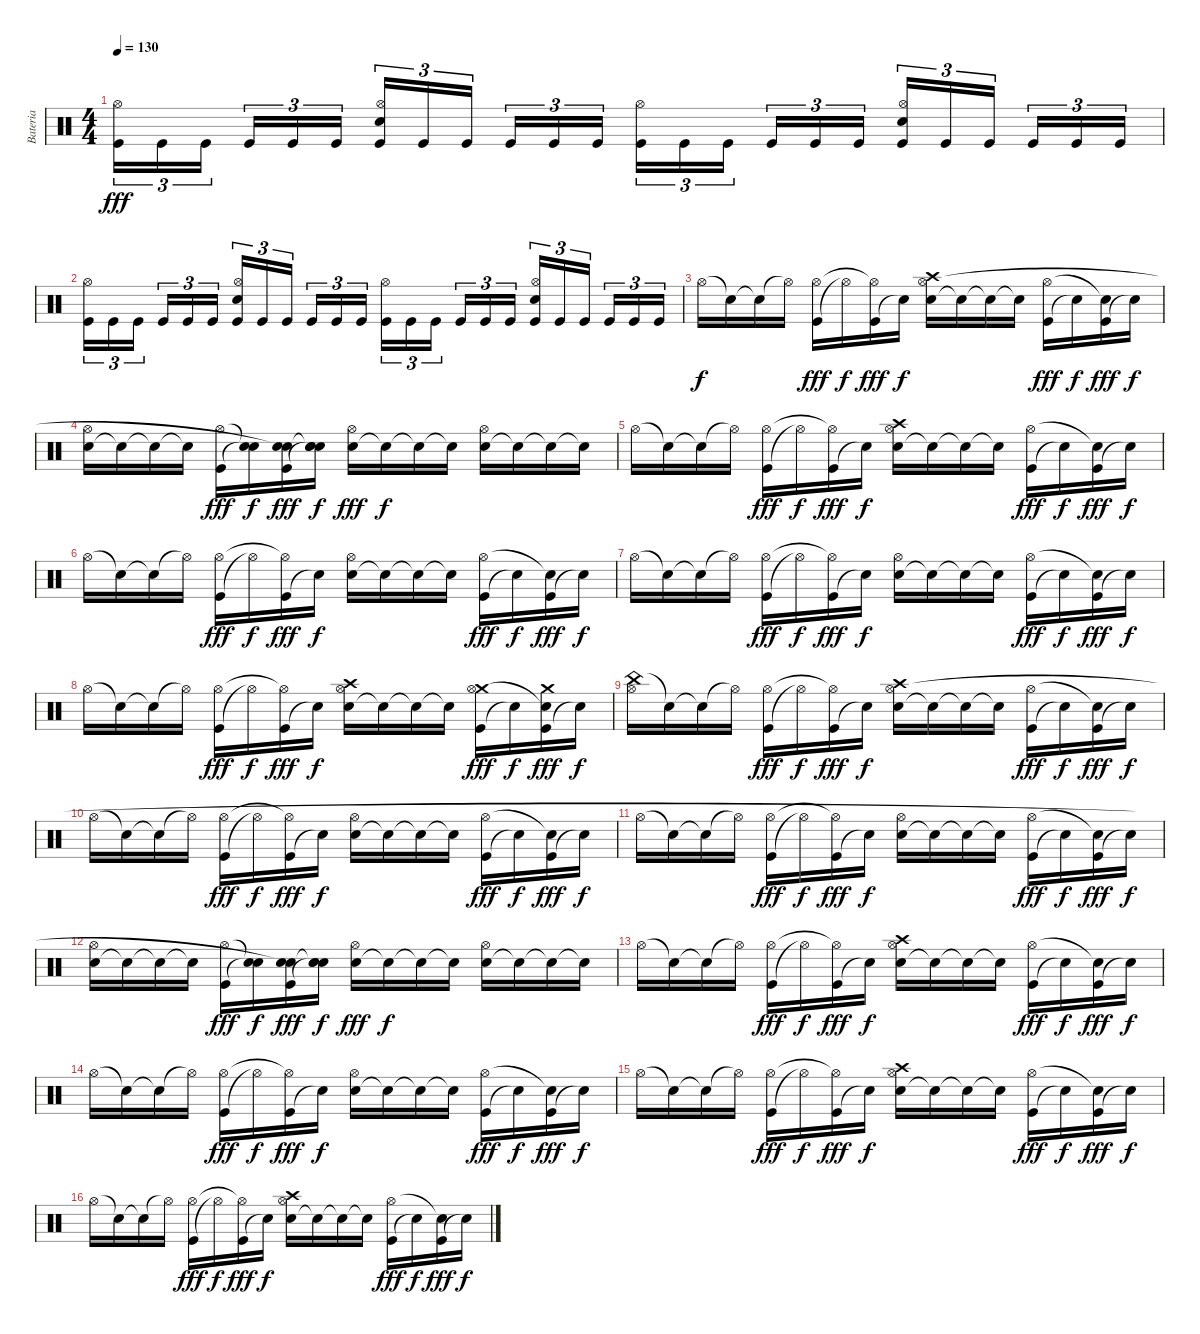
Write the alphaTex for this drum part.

\track ("Bateria" "Bateria") {instrument percussion}
\staff {score}
\articulation defaults
\ts (4 4)
\tempo 130
\clef neutral
\ks c
("Kick (hit)" "Hi-Hat (open)").16{tu (3 2) dy fff} "Kick (hit)".16{tu (3 2)} "Kick (hit)".16{tu (3 2)} "Kick (hit)".16{tu (3 2)} "Kick (hit)".16{tu (3 2)} "Kick (hit)".16{tu (3 2)} ("Kick (hit)" "Electric Snare (hit)" "Hi-Hat (open)").16{tu (3 2)} "Kick (hit)".16{tu (3 2)} "Kick (hit)".16{tu (3 2)} "Kick (hit)".16{tu (3 2)} "Kick (hit)".16{tu (3 2)} "Kick (hit)".16{tu (3 2)} ("Kick (hit)" "Hi-Hat (open)").16{tu (3 2)} "Kick (hit)".16{tu (3 2)} "Kick (hit)".16{tu (3 2)} "Kick (hit)".16{tu (3 2)} "Kick (hit)".16{tu (3 2)} "Kick (hit)".16{tu (3 2)} ("Kick (hit)" "Electric Snare (hit)" "Hi-Hat (open)").16{tu (3 2)} "Kick (hit)".16{tu (3 2)} "Kick (hit)".16{tu (3 2)} "Kick (hit)".16{tu (3 2)} "Kick (hit)".16{tu (3 2)} "Kick (hit)".16{tu (3 2)} |
("Kick (hit)" "Hi-Hat (open)").16{tu (3 2)} "Kick (hit)".16{tu (3 2)} "Kick (hit)".16{tu (3 2)} "Kick (hit)".16{tu (3 2)} "Kick (hit)".16{tu (3 2)} "Kick (hit)".16{tu (3 2)} ("Kick (hit)" "Electric Snare (hit)" "Hi-Hat (open)").16{tu (3 2)} "Kick (hit)".16{tu (3 2)} "Kick (hit)".16{tu (3 2)} "Kick (hit)".16{tu (3 2)} "Kick (hit)".16{tu (3 2)} "Kick (hit)".16{tu (3 2)} ("Kick (hit)" "Hi-Hat (open)").16{tu (3 2)} "Kick (hit)".16{tu (3 2)} "Kick (hit)".16{tu (3 2)} "Kick (hit)".16{tu (3 2)} "Kick (hit)".16{tu (3 2)} "Kick (hit)".16{tu (3 2)} ("Kick (hit)" "Electric Snare (hit)" "Hi-Hat (open)").16{tu (3 2)} "Kick (hit)".16{tu (3 2)} "Kick (hit)".16{tu (3 2)} "Kick (hit)".16{tu (3 2)} "Kick (hit)".16{tu (3 2)} "Kick (hit)".16{tu (3 2)} |
"Hi-Hat (open)".16{dy f} "Snare (hit)"{t}.16 "Snare (hit)"{t}.16 "Hi-Hat (open)"{t}.16 ("Kick (hit)" "Hi-Hat (open)").16{dy fff} "Hi-Hat (open)"{t}.16{dy f} ("Kick (hit)" "Hi-Hat (open)"{t}).16{dy fff} "Snare (hit)"{t}.16{dy f} ("Electric Snare (hit)" "Crash high (hit)" "Hi-Hat (open)").16 "Snare (hit)"{t}.16 "Snare (hit)"{t}.16 "Snare (hit)"{t}.16 ("Kick (hit)" "Hi-Hat (open)").16{dy fff} "Snare (hit)"{t}.16{dy f} ("Kick (hit)" "Snare (hit)"{t}).16{dy fff} "Snare (hit)"{t}.16{dy f} |
("Electric Snare (hit)" "Hi-Hat (open)").16 "Snare (hit)"{t}.16 "Snare (hit)"{t}.16 "Snare (hit)"{t}.16 ("Kick (hit)" "Hi-Hat (open)").16{dy fff} ("Snare (hit)"{t} "Snare (hit)"{t}).16{dy f} ("Kick (hit)" "Electric Snare (hit)" "Snare (hit)"{t}).16{dy fff} ("Snare (hit)"{t} "Electric Snare (hit)" "Snare (hit)"{t}).16{dy f} ("Electric Snare (hit)" "Hi-Hat (open)").16{dy fff} "Snare (hit)"{t}.16{dy f} "Snare (hit)"{t}.16 "Snare (hit)"{t}.16 ("Electric Snare (hit)" "Hi-Hat (open)").16 "Snare (hit)"{t}.16 "Snare (hit)"{t}.16 "Snare (hit)"{t}.16 |
"Hi-Hat (open)".16 "Snare (hit)"{t}.16 "Snare (hit)"{t}.16 "Hi-Hat (open)"{t}.16 ("Kick (hit)" "Hi-Hat (open)").16{dy fff} "Hi-Hat (open)"{t}.16{dy f} ("Kick (hit)" "Hi-Hat (open)"{t}).16{dy fff} "Snare (hit)"{t}.16{dy f} ("Electric Snare (hit)" "Crash high (hit)" "Hi-Hat (open)").16 "Snare (hit)"{t}.16 "Snare (hit)"{t}.16 "Snare (hit)"{t}.16 ("Kick (hit)" "Hi-Hat (open)").16{dy fff} "Snare (hit)"{t}.16{dy f} ("Kick (hit)" "Snare (hit)"{t}).16{dy fff} "Snare (hit)"{t}.16{dy f} |
"Hi-Hat (open)".16 "Snare (hit)"{t}.16 "Snare (hit)"{t}.16 "Hi-Hat (open)"{t}.16 ("Kick (hit)" "Hi-Hat (open)").16{dy fff} "Hi-Hat (open)"{t}.16{dy f} ("Kick (hit)" "Hi-Hat (open)"{t}).16{dy fff} "Snare (hit)"{t}.16{dy f} ("Electric Snare (hit)" "Hi-Hat (open)").16 "Snare (hit)"{t}.16 "Snare (hit)"{t}.16 "Snare (hit)"{t}.16 ("Kick (hit)" "Hi-Hat (open)").16{dy fff} "Snare (hit)"{t}.16{dy f} ("Kick (hit)" "Snare (hit)"{t}).16{dy fff} "Snare (hit)"{t}.16{dy f} |
"Hi-Hat (open)".16 "Snare (hit)"{t}.16 "Snare (hit)"{t}.16 "Hi-Hat (open)"{t}.16 ("Kick (hit)" "Hi-Hat (open)").16{dy fff} "Hi-Hat (open)"{t}.16{dy f} ("Kick (hit)" "Hi-Hat (open)"{t}).16{dy fff} "Snare (hit)"{t}.16{dy f} ("Electric Snare (hit)" "Hi-Hat (open)").16 "Snare (hit)"{t}.16 "Snare (hit)"{t}.16 "Snare (hit)"{t}.16 ("Kick (hit)" "Hi-Hat (open)").16{dy fff} "Snare (hit)"{t}.16{dy f} ("Kick (hit)" "Snare (hit)"{t}).16{dy fff} "Snare (hit)"{t}.16{dy f} |
"Hi-Hat (open)".16 "Snare (hit)"{t}.16 "Snare (hit)"{t}.16 "Hi-Hat (open)"{t}.16 ("Kick (hit)" "Hi-Hat (open)").16{dy fff} "Hi-Hat (open)"{t}.16{dy f} ("Kick (hit)" "Hi-Hat (open)"{t}).16{dy fff} "Snare (hit)"{t}.16{dy f} ("Electric Snare (hit)" "Crash high (hit)" "Hi-Hat (open)").16 "Snare (hit)"{t}.16 "Snare (hit)"{t}.16 "Snare (hit)"{t}.16 ("Kick (hit)" "Crash medium (hit)" "Hi-Hat (open)").16{dy fff} "Snare (hit)"{t}.16{dy f} ("Kick (hit)" "Crash medium (hit)" "Snare (hit)"{t}).16{dy fff} "Snare (hit)"{t}.16{dy f} |
("China (hit)" "Hi-Hat (open)").16 "Snare (hit)"{t}.16 "Snare (hit)"{t}.16 "Hi-Hat (open)"{t}.16 ("Kick (hit)" "Hi-Hat (open)").16{dy fff} "Hi-Hat (open)"{t}.16{dy f} ("Kick (hit)" "Hi-Hat (open)"{t}).16{dy fff} "Snare (hit)"{t}.16{dy f} ("Electric Snare (hit)" "Crash high (hit)" "Hi-Hat (open)").16 "Snare (hit)"{t}.16 "Snare (hit)"{t}.16 "Snare (hit)"{t}.16 ("Kick (hit)" "Hi-Hat (open)").16{dy fff} "Snare (hit)"{t}.16{dy f} ("Kick (hit)" "Snare (hit)"{t}).16{dy fff} "Snare (hit)"{t}.16{dy f} |
"Hi-Hat (open)".16 "Snare (hit)"{t}.16 "Snare (hit)"{t}.16 "Hi-Hat (open)"{t}.16 ("Kick (hit)" "Hi-Hat (open)").16{dy fff} "Hi-Hat (open)"{t}.16{dy f} ("Kick (hit)" "Hi-Hat (open)"{t}).16{dy fff} "Snare (hit)"{t}.16{dy f} ("Electric Snare (hit)" "Hi-Hat (open)").16 "Snare (hit)"{t}.16 "Snare (hit)"{t}.16 "Snare (hit)"{t}.16 ("Kick (hit)" "Hi-Hat (open)").16{dy fff} "Snare (hit)"{t}.16{dy f} ("Kick (hit)" "Snare (hit)"{t}).16{dy fff} "Snare (hit)"{t}.16{dy f} |
"Hi-Hat (open)".16 "Snare (hit)"{t}.16 "Snare (hit)"{t}.16 "Hi-Hat (open)"{t}.16 ("Kick (hit)" "Hi-Hat (open)").16{dy fff} "Hi-Hat (open)"{t}.16{dy f} ("Kick (hit)" "Hi-Hat (open)"{t}).16{dy fff} "Snare (hit)"{t}.16{dy f} ("Electric Snare (hit)" "Hi-Hat (open)").16 "Snare (hit)"{t}.16 "Snare (hit)"{t}.16 "Snare (hit)"{t}.16 ("Kick (hit)" "Hi-Hat (open)").16{dy fff} "Snare (hit)"{t}.16{dy f} ("Kick (hit)" "Snare (hit)"{t}).16{dy fff} "Snare (hit)"{t}.16{dy f} |
("Electric Snare (hit)" "Hi-Hat (open)").16 "Snare (hit)"{t}.16 "Snare (hit)"{t}.16 "Snare (hit)"{t}.16 ("Kick (hit)" "Hi-Hat (open)").16{dy fff} ("Snare (hit)"{t} "Snare (hit)"{t}).16{dy f} ("Kick (hit)" "Electric Snare (hit)" "Snare (hit)"{t}).16{dy fff} ("Snare (hit)"{t} "Electric Snare (hit)" "Snare (hit)"{t}).16{dy f} ("Electric Snare (hit)" "Hi-Hat (open)").16{dy fff} "Snare (hit)"{t}.16{dy f} "Snare (hit)"{t}.16 "Snare (hit)"{t}.16 ("Electric Snare (hit)" "Hi-Hat (open)").16 "Snare (hit)"{t}.16 "Snare (hit)"{t}.16 "Snare (hit)"{t}.16 |
"Hi-Hat (open)".16 "Snare (hit)"{t}.16 "Snare (hit)"{t}.16 "Hi-Hat (open)"{t}.16 ("Kick (hit)" "Hi-Hat (open)").16{dy fff} "Hi-Hat (open)"{t}.16{dy f} ("Kick (hit)" "Hi-Hat (open)"{t}).16{dy fff} "Snare (hit)"{t}.16{dy f} ("Electric Snare (hit)" "Crash high (hit)" "Hi-Hat (open)").16 "Snare (hit)"{t}.16 "Snare (hit)"{t}.16 "Snare (hit)"{t}.16 ("Kick (hit)" "Hi-Hat (open)").16{dy fff} "Snare (hit)"{t}.16{dy f} ("Kick (hit)" "Snare (hit)"{t}).16{dy fff} "Snare (hit)"{t}.16{dy f} |
"Hi-Hat (open)".16 "Snare (hit)"{t}.16 "Snare (hit)"{t}.16 "Hi-Hat (open)"{t}.16 ("Kick (hit)" "Hi-Hat (open)").16{dy fff} "Hi-Hat (open)"{t}.16{dy f} ("Kick (hit)" "Hi-Hat (open)"{t}).16{dy fff} "Snare (hit)"{t}.16{dy f} ("Electric Snare (hit)" "Hi-Hat (open)").16 "Snare (hit)"{t}.16 "Snare (hit)"{t}.16 "Snare (hit)"{t}.16 ("Kick (hit)" "Hi-Hat (open)").16{dy fff} "Snare (hit)"{t}.16{dy f} ("Kick (hit)" "Snare (hit)"{t}).16{dy fff} "Snare (hit)"{t}.16{dy f} |
"Hi-Hat (open)".16 "Snare (hit)"{t}.16 "Snare (hit)"{t}.16 "Hi-Hat (open)"{t}.16 ("Kick (hit)" "Hi-Hat (open)").16{dy fff} "Hi-Hat (open)"{t}.16{dy f} ("Kick (hit)" "Hi-Hat (open)"{t}).16{dy fff} "Snare (hit)"{t}.16{dy f} ("Electric Snare (hit)" "Crash high (hit)" "Hi-Hat (open)").16 "Snare (hit)"{t}.16 "Snare (hit)"{t}.16 "Snare (hit)"{t}.16 ("Kick (hit)" "Hi-Hat (open)").16{dy fff} "Snare (hit)"{t}.16{dy f} ("Kick (hit)" "Snare (hit)"{t}).16{dy fff} "Snare (hit)"{t}.16{dy f} |
"Hi-Hat (open)".16 "Snare (hit)"{t}.16 "Snare (hit)"{t}.16 "Hi-Hat (open)"{t}.16 ("Kick (hit)" "Hi-Hat (open)").16{dy fff} "Hi-Hat (open)"{t}.16{dy f} ("Kick (hit)" "Hi-Hat (open)"{t}).16{dy fff} "Snare (hit)"{t}.16{dy f} ("Electric Snare (hit)" "Crash high (hit)" "Hi-Hat (open)").16 "Snare (hit)"{t}.16 "Snare (hit)"{t}.16 "Snare (hit)"{t}.16 ("Kick (hit)" "Hi-Hat (open)").16{dy fff} "Snare (hit)"{t}.16{dy f} ("Kick (hit)" "Snare (hit)"{t}).16{dy fff} "Snare (hit)"{t}.16{dy f}
